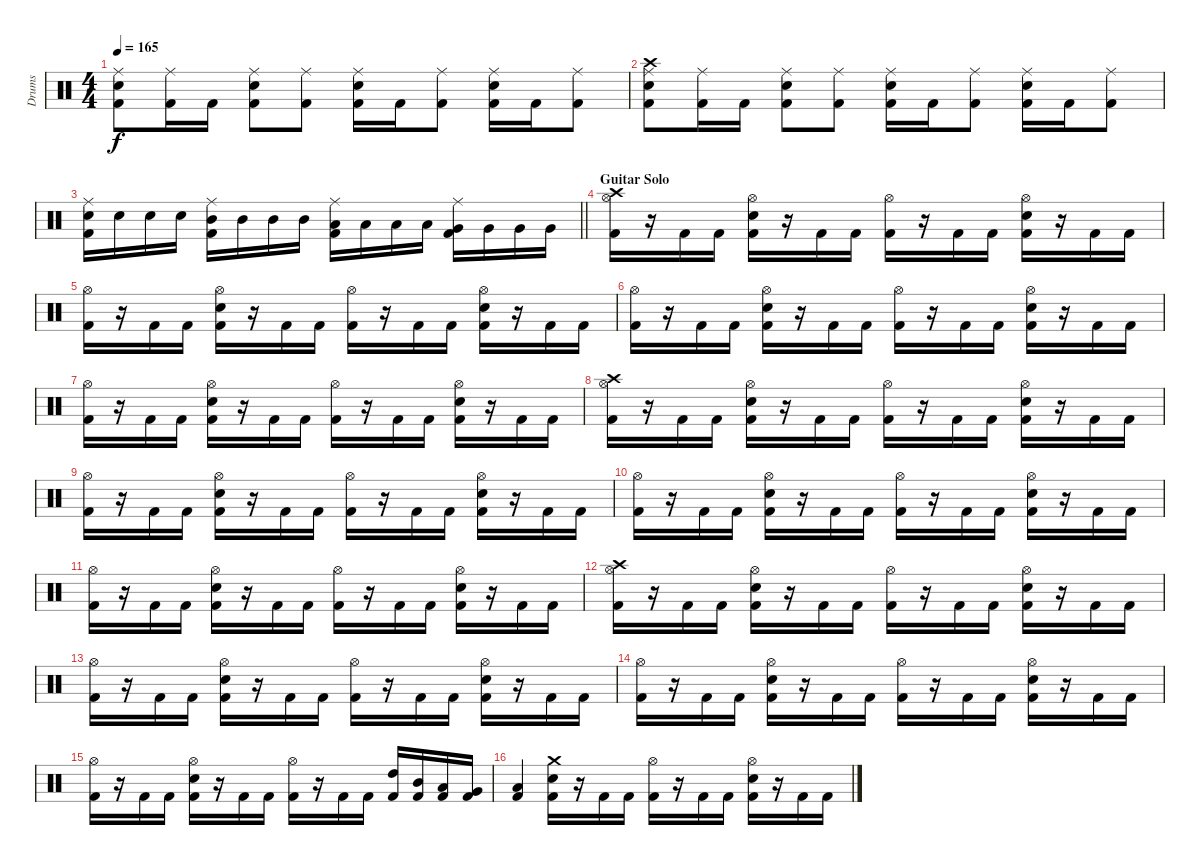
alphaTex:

\track ("Drums" "Drums") {instrument percussion}
\staff {score}
\articulation defaults
\ts (4 4)
\tempo 165
\clef neutral
\ks c
("Ride (middle)" "Snare (hit) 2" "Kick (hit) 2").8{dy f} ("Ride (middle)" "Kick (hit) 2").16 "Kick (hit) 2".16 ("Ride (middle)" "Snare (hit) 2" "Kick (hit) 2").8 ("Ride (middle)" "Kick (hit) 2").8 ("Ride (middle)" "Snare (hit) 2" "Kick (hit) 2").16 "Kick (hit) 2".16 ("Ride (middle)" "Kick (hit) 2").8 ("Ride (middle)" "Snare (hit) 2" "Kick (hit) 2").16 "Kick (hit) 2".16 ("Ride (middle)" "Kick (hit) 2").8 |
("Crash high (hit)" "Ride (middle)" "Snare (hit) 2" "Kick (hit) 2").8 ("Ride (middle)" "Kick (hit) 2").16 "Kick (hit) 2".16 ("Ride (middle)" "Snare (hit) 2" "Kick (hit) 2").8 ("Ride (middle)" "Kick (hit) 2").8 ("Ride (middle)" "Snare (hit) 2" "Kick (hit) 2").16 "Kick (hit) 2".16 ("Ride (middle)" "Kick (hit) 2").8 ("Ride (middle)" "Snare (hit) 2" "Kick (hit) 2").16 "Kick (hit) 2".16 ("Ride (middle)" "Kick (hit) 2").8 |
\barLineRight lightlight
("Ride (middle)" "Snare (hit) 2" "Kick (hit) 2").16 "Snare (hit) 2".16 "Snare (hit) 2".16 "Snare (hit) 2".16 ("Ride (middle)" "Mid Tom (hit)" "Kick (hit) 2").16 "Mid Tom (hit)".16 "Mid Tom (hit)".16 "Mid Tom (hit)".16 ("Ride (middle)" "Low Tom (hit)" "Kick (hit) 2").16 "Low Tom (hit)".16 "Low Tom (hit)".16 "Low Tom (hit)".16 ("Ride (middle)" "Very Low Tom (hit)" "Kick (hit) 2").16 "Very Low Tom (hit)".16 "Very Low Tom (hit)".16 "Very Low Tom (hit)".16 |
\section ("" "Guitar Solo")
("Crash high (hit)" "Hi-Hat (open)" "Kick (hit) 2").16 r.16 "Kick (hit) 2".16 "Kick (hit) 2".16 ("Hi-Hat (open)" "Snare (hit) 2" "Kick (hit) 2").16 r.16 "Kick (hit) 2".16 "Kick (hit) 2".16 ("Hi-Hat (open)" "Kick (hit) 2").16 r.16 "Kick (hit) 2".16 "Kick (hit) 2".16 ("Hi-Hat (open)" "Snare (hit) 2" "Kick (hit) 2").16 r.16 "Kick (hit) 2".16 "Kick (hit) 2".16 |
("Hi-Hat (open)" "Kick (hit) 2").16 r.16 "Kick (hit) 2".16 "Kick (hit) 2".16 ("Hi-Hat (open)" "Snare (hit) 2" "Kick (hit) 2").16 r.16 "Kick (hit) 2".16 "Kick (hit) 2".16 ("Hi-Hat (open)" "Kick (hit) 2").16 r.16 "Kick (hit) 2".16 "Kick (hit) 2".16 ("Hi-Hat (open)" "Snare (hit) 2" "Kick (hit) 2").16 r.16 "Kick (hit) 2".16 "Kick (hit) 2".16 |
("Hi-Hat (open)" "Kick (hit) 2").16 r.16 "Kick (hit) 2".16 "Kick (hit) 2".16 ("Hi-Hat (open)" "Snare (hit) 2" "Kick (hit) 2").16 r.16 "Kick (hit) 2".16 "Kick (hit) 2".16 ("Hi-Hat (open)" "Kick (hit) 2").16 r.16 "Kick (hit) 2".16 "Kick (hit) 2".16 ("Hi-Hat (open)" "Snare (hit) 2" "Kick (hit) 2").16 r.16 "Kick (hit) 2".16 "Kick (hit) 2".16 |
("Hi-Hat (open)" "Kick (hit) 2").16 r.16 "Kick (hit) 2".16 "Kick (hit) 2".16 ("Hi-Hat (open)" "Snare (hit) 2" "Kick (hit) 2").16 r.16 "Kick (hit) 2".16 "Kick (hit) 2".16 ("Hi-Hat (open)" "Kick (hit) 2").16 r.16 "Kick (hit) 2".16 "Kick (hit) 2".16 ("Hi-Hat (open)" "Snare (hit) 2" "Kick (hit) 2").16 r.16 "Kick (hit) 2".16 "Kick (hit) 2".16 |
("Crash high (hit)" "Hi-Hat (open)" "Kick (hit) 2").16 r.16 "Kick (hit) 2".16 "Kick (hit) 2".16 ("Hi-Hat (open)" "Snare (hit) 2" "Kick (hit) 2").16 r.16 "Kick (hit) 2".16 "Kick (hit) 2".16 ("Hi-Hat (open)" "Kick (hit) 2").16 r.16 "Kick (hit) 2".16 "Kick (hit) 2".16 ("Hi-Hat (open)" "Snare (hit) 2" "Kick (hit) 2").16 r.16 "Kick (hit) 2".16 "Kick (hit) 2".16 |
("Hi-Hat (open)" "Kick (hit) 2").16 r.16 "Kick (hit) 2".16 "Kick (hit) 2".16 ("Hi-Hat (open)" "Snare (hit) 2" "Kick (hit) 2").16 r.16 "Kick (hit) 2".16 "Kick (hit) 2".16 ("Hi-Hat (open)" "Kick (hit) 2").16 r.16 "Kick (hit) 2".16 "Kick (hit) 2".16 ("Hi-Hat (open)" "Snare (hit) 2" "Kick (hit) 2").16 r.16 "Kick (hit) 2".16 "Kick (hit) 2".16 |
("Hi-Hat (open)" "Kick (hit) 2").16 r.16 "Kick (hit) 2".16 "Kick (hit) 2".16 ("Hi-Hat (open)" "Snare (hit) 2" "Kick (hit) 2").16 r.16 "Kick (hit) 2".16 "Kick (hit) 2".16 ("Hi-Hat (open)" "Kick (hit) 2").16 r.16 "Kick (hit) 2".16 "Kick (hit) 2".16 ("Hi-Hat (open)" "Snare (hit) 2" "Kick (hit) 2").16 r.16 "Kick (hit) 2".16 "Kick (hit) 2".16 |
("Hi-Hat (open)" "Kick (hit) 2").16 r.16 "Kick (hit) 2".16 "Kick (hit) 2".16 ("Hi-Hat (open)" "Snare (hit) 2" "Kick (hit) 2").16 r.16 "Kick (hit) 2".16 "Kick (hit) 2".16 ("Hi-Hat (open)" "Kick (hit) 2").16 r.16 "Kick (hit) 2".16 "Kick (hit) 2".16 ("Hi-Hat (open)" "Snare (hit) 2" "Kick (hit) 2").16 r.16 "Kick (hit) 2".16 "Kick (hit) 2".16 |
("Crash high (hit)" "Hi-Hat (open)" "Kick (hit) 2").16 r.16 "Kick (hit) 2".16 "Kick (hit) 2".16 ("Hi-Hat (open)" "Snare (hit) 2" "Kick (hit) 2").16 r.16 "Kick (hit) 2".16 "Kick (hit) 2".16 ("Hi-Hat (open)" "Kick (hit) 2").16 r.16 "Kick (hit) 2".16 "Kick (hit) 2".16 ("Hi-Hat (open)" "Snare (hit) 2" "Kick (hit) 2").16 r.16 "Kick (hit) 2".16 "Kick (hit) 2".16 |
("Hi-Hat (open)" "Kick (hit) 2").16 r.16 "Kick (hit) 2".16 "Kick (hit) 2".16 ("Hi-Hat (open)" "Snare (hit) 2" "Kick (hit) 2").16 r.16 "Kick (hit) 2".16 "Kick (hit) 2".16 ("Hi-Hat (open)" "Kick (hit) 2").16 r.16 "Kick (hit) 2".16 "Kick (hit) 2".16 ("Hi-Hat (open)" "Snare (hit) 2" "Kick (hit) 2").16 r.16 "Kick (hit) 2".16 "Kick (hit) 2".16 |
("Hi-Hat (open)" "Kick (hit) 2").16 r.16 "Kick (hit) 2".16 "Kick (hit) 2".16 ("Hi-Hat (open)" "Snare (hit) 2" "Kick (hit) 2").16 r.16 "Kick (hit) 2".16 "Kick (hit) 2".16 ("Hi-Hat (open)" "Kick (hit) 2").16 r.16 "Kick (hit) 2".16 "Kick (hit) 2".16 ("Hi-Hat (open)" "Snare (hit) 2" "Kick (hit) 2").16 r.16 "Kick (hit) 2".16 "Kick (hit) 2".16 |
("Hi-Hat (open)" "Kick (hit) 2").16 r.16 "Kick (hit) 2".16 "Kick (hit) 2".16 ("Hi-Hat (open)" "Snare (hit) 2" "Kick (hit) 2").16 r.16 "Kick (hit) 2".16 "Kick (hit) 2".16 ("Hi-Hat (open)" "Kick (hit) 2").16 r.16 "Kick (hit) 2".16 "Kick (hit) 2".16 ("High Tom (hit)" "Kick (hit) 2").16 ("Mid Tom (hit)" "Kick (hit) 2").16 ("Low Tom (hit)" "Kick (hit) 2").16 ("Very Low Tom (hit)" "Kick (hit) 2").16 |
("Low Floor Tom (hit)" "Kick (hit) 2").4 ("Crash medium (hit)" "Snare (hit) 2" "Kick (hit) 2").16 r.16 "Kick (hit) 2".16 "Kick (hit) 2".16 ("Hi-Hat (open)" "Kick (hit) 2").16 r.16 "Kick (hit) 2".16 "Kick (hit) 2".16 ("Hi-Hat (open)" "Snare (hit) 2" "Kick (hit) 2").16 r.16 "Kick (hit) 2".16 "Kick (hit) 2".16
